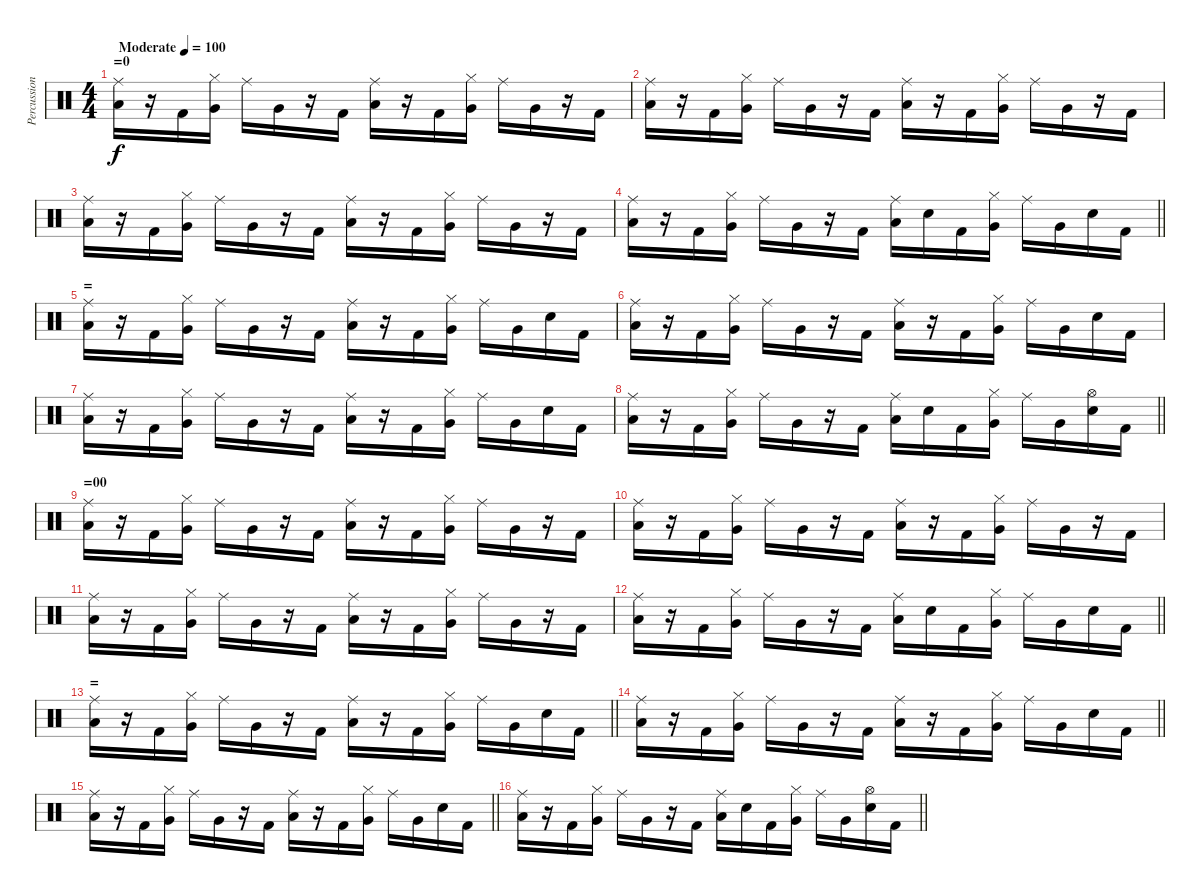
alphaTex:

\track ("Percussion" "Percussion") {instrument percussion}
\staff {score}
\articulation defaults
\ts (4 4)
\section ("" "=0")
\tempo (100 "Moderate")
\clef neutral
\ks c
("Low Floor Tom (hit)" "Ride (middle)").16{dy f} r.16 "Kick (hit) 2".16 ("Very Low Tom (hit)" "Hi-Hat (closed)").16 "Ride (middle)".16 "Very Low Tom (hit)".16 r.16 "Kick (hit) 2".16 ("Low Floor Tom (hit)" "Ride (middle)").16 r.16 "Kick (hit) 2".16 ("Very Low Tom (hit)" "Hi-Hat (closed)").16 "Ride (middle)".16 "Very Low Tom (hit)".16 r.16 "Kick (hit) 2".16 |
("Low Floor Tom (hit)" "Ride (middle)").16 r.16 "Kick (hit) 2".16 ("Very Low Tom (hit)" "Hi-Hat (closed)").16 "Ride (middle)".16 "Very Low Tom (hit)".16 r.16 "Kick (hit) 2".16 ("Low Floor Tom (hit)" "Ride (middle)").16 r.16 "Kick (hit) 2".16 ("Very Low Tom (hit)" "Hi-Hat (closed)").16 "Ride (middle)".16 "Very Low Tom (hit)".16 r.16 "Kick (hit) 2".16 |
("Low Floor Tom (hit)" "Ride (middle)").16 r.16 "Kick (hit) 2".16 ("Very Low Tom (hit)" "Hi-Hat (closed)").16 "Ride (middle)".16 "Very Low Tom (hit)".16 r.16 "Kick (hit) 2".16 ("Low Floor Tom (hit)" "Ride (middle)").16 r.16 "Kick (hit) 2".16 ("Very Low Tom (hit)" "Hi-Hat (closed)").16 "Ride (middle)".16 "Very Low Tom (hit)".16 r.16 "Kick (hit) 2".16 |
\barLineRight lightlight
("Low Floor Tom (hit)" "Ride (middle)").16 r.16 "Kick (hit) 2".16 ("Very Low Tom (hit)" "Hi-Hat (closed)").16 "Ride (middle)".16 "Very Low Tom (hit)".16 r.16 "Kick (hit) 2".16 ("Low Floor Tom (hit)" "Ride (middle)").16 "Electric Snare (hit)".16 "Kick (hit) 2".16 ("Very Low Tom (hit)" "Hi-Hat (closed)").16 "Ride (middle)".16 "Very Low Tom (hit)".16 "Electric Snare (hit)".16 "Kick (hit) 2".16 |
\section ("" "=")
("Low Floor Tom (hit)" "Ride (middle)").16 r.16 "Kick (hit) 2".16 ("Very Low Tom (hit)" "Hi-Hat (closed)").16 "Ride (middle)".16 "Very Low Tom (hit)".16 r.16 "Kick (hit) 2".16 ("Low Floor Tom (hit)" "Ride (middle)").16 r.16 "Kick (hit) 2".16 ("Very Low Tom (hit)" "Hi-Hat (closed)").16 "Ride (middle)".16 "Very Low Tom (hit)".16 "Electric Snare (hit)".16 "Kick (hit) 2".16 |
("Low Floor Tom (hit)" "Ride (middle)").16 r.16 "Kick (hit) 2".16 ("Very Low Tom (hit)" "Hi-Hat (closed)").16 "Ride (middle)".16 "Very Low Tom (hit)".16 r.16 "Kick (hit) 2".16 ("Low Floor Tom (hit)" "Ride (middle)").16 r.16 "Kick (hit) 2".16 ("Very Low Tom (hit)" "Hi-Hat (closed)").16 "Ride (middle)".16 "Very Low Tom (hit)".16 "Electric Snare (hit)".16 "Kick (hit) 2".16 |
("Low Floor Tom (hit)" "Ride (middle)").16 r.16 "Kick (hit) 2".16 ("Very Low Tom (hit)" "Hi-Hat (closed)").16 "Ride (middle)".16 "Very Low Tom (hit)".16 r.16 "Kick (hit) 2".16 ("Low Floor Tom (hit)" "Ride (middle)").16 r.16 "Kick (hit) 2".16 ("Very Low Tom (hit)" "Hi-Hat (closed)").16 "Ride (middle)".16 "Very Low Tom (hit)".16 "Electric Snare (hit)".16 "Kick (hit) 2".16 |
\barLineRight lightlight
("Low Floor Tom (hit)" "Ride (middle)").16 r.16 "Kick (hit) 2".16 ("Very Low Tom (hit)" "Hi-Hat (closed)").16 "Ride (middle)".16 "Very Low Tom (hit)".16 r.16 "Kick (hit) 2".16 ("Low Floor Tom (hit)" "Ride (middle)").16 "Electric Snare (hit)".16 "Kick (hit) 2".16 ("Very Low Tom (hit)" "Hi-Hat (closed)").16 "Ride (middle)".16 "Very Low Tom (hit)".16 ("Electric Snare (hit)" "Hi-Hat (open)").16 "Kick (hit) 2".16 |
\section ("" "=00")
("Low Floor Tom (hit)" "Ride (middle)").16 r.16 "Kick (hit) 2".16 ("Very Low Tom (hit)" "Hi-Hat (closed)").16 "Ride (middle)".16 "Very Low Tom (hit)".16 r.16 "Kick (hit) 2".16 ("Low Floor Tom (hit)" "Ride (middle)").16 r.16 "Kick (hit) 2".16 ("Very Low Tom (hit)" "Hi-Hat (closed)").16 "Ride (middle)".16 "Very Low Tom (hit)".16 r.16 "Kick (hit) 2".16 |
("Low Floor Tom (hit)" "Ride (middle)").16 r.16 "Kick (hit) 2".16 ("Very Low Tom (hit)" "Hi-Hat (closed)").16 "Ride (middle)".16 "Very Low Tom (hit)".16 r.16 "Kick (hit) 2".16 ("Low Floor Tom (hit)" "Ride (middle)").16 r.16 "Kick (hit) 2".16 ("Very Low Tom (hit)" "Hi-Hat (closed)").16 "Ride (middle)".16 "Very Low Tom (hit)".16 r.16 "Kick (hit) 2".16 |
("Low Floor Tom (hit)" "Ride (middle)").16 r.16 "Kick (hit) 2".16 ("Very Low Tom (hit)" "Hi-Hat (closed)").16 "Ride (middle)".16 "Very Low Tom (hit)".16 r.16 "Kick (hit) 2".16 ("Low Floor Tom (hit)" "Ride (middle)").16 r.16 "Kick (hit) 2".16 ("Very Low Tom (hit)" "Hi-Hat (closed)").16 "Ride (middle)".16 "Very Low Tom (hit)".16 r.16 "Kick (hit) 2".16 |
\barLineRight lightlight
("Low Floor Tom (hit)" "Ride (middle)").16 r.16 "Kick (hit) 2".16 ("Very Low Tom (hit)" "Hi-Hat (closed)").16 "Ride (middle)".16 "Very Low Tom (hit)".16 r.16 "Kick (hit) 2".16 ("Low Floor Tom (hit)" "Ride (middle)").16 "Electric Snare (hit)".16 "Kick (hit) 2".16 ("Very Low Tom (hit)" "Hi-Hat (closed)").16 "Ride (middle)".16 "Very Low Tom (hit)".16 "Electric Snare (hit)".16 "Kick (hit) 2".16 |
\section ("" "=")
\barLineRight lightlight
("Low Floor Tom (hit)" "Ride (middle)").16 r.16 "Kick (hit) 2".16 ("Very Low Tom (hit)" "Hi-Hat (closed)").16 "Ride (middle)".16 "Very Low Tom (hit)".16 r.16 "Kick (hit) 2".16 ("Low Floor Tom (hit)" "Ride (middle)").16 r.16 "Kick (hit) 2".16 ("Very Low Tom (hit)" "Hi-Hat (closed)").16 "Ride (middle)".16 "Very Low Tom (hit)".16 "Electric Snare (hit)".16 "Kick (hit) 2".16 |
\barLineRight lightlight
("Low Floor Tom (hit)" "Ride (middle)").16 r.16 "Kick (hit) 2".16 ("Very Low Tom (hit)" "Hi-Hat (closed)").16 "Ride (middle)".16 "Very Low Tom (hit)".16 r.16 "Kick (hit) 2".16 ("Low Floor Tom (hit)" "Ride (middle)").16 r.16 "Kick (hit) 2".16 ("Very Low Tom (hit)" "Hi-Hat (closed)").16 "Ride (middle)".16 "Very Low Tom (hit)".16 "Electric Snare (hit)".16 "Kick (hit) 2".16 |
\barLineRight lightlight
("Low Floor Tom (hit)" "Ride (middle)").16 r.16 "Kick (hit) 2".16 ("Very Low Tom (hit)" "Hi-Hat (closed)").16 "Ride (middle)".16 "Very Low Tom (hit)".16 r.16 "Kick (hit) 2".16 ("Low Floor Tom (hit)" "Ride (middle)").16 r.16 "Kick (hit) 2".16 ("Very Low Tom (hit)" "Hi-Hat (closed)").16 "Ride (middle)".16 "Very Low Tom (hit)".16 "Electric Snare (hit)".16 "Kick (hit) 2".16 |
\barLineRight lightlight
("Low Floor Tom (hit)" "Ride (middle)").16 r.16 "Kick (hit) 2".16 ("Very Low Tom (hit)" "Hi-Hat (closed)").16 "Ride (middle)".16 "Very Low Tom (hit)".16 r.16 "Kick (hit) 2".16 ("Low Floor Tom (hit)" "Ride (middle)").16 "Electric Snare (hit)".16 "Kick (hit) 2".16 ("Very Low Tom (hit)" "Hi-Hat (closed)").16 "Ride (middle)".16 "Very Low Tom (hit)".16 ("Electric Snare (hit)" "Hi-Hat (open)").16 "Kick (hit) 2".16
